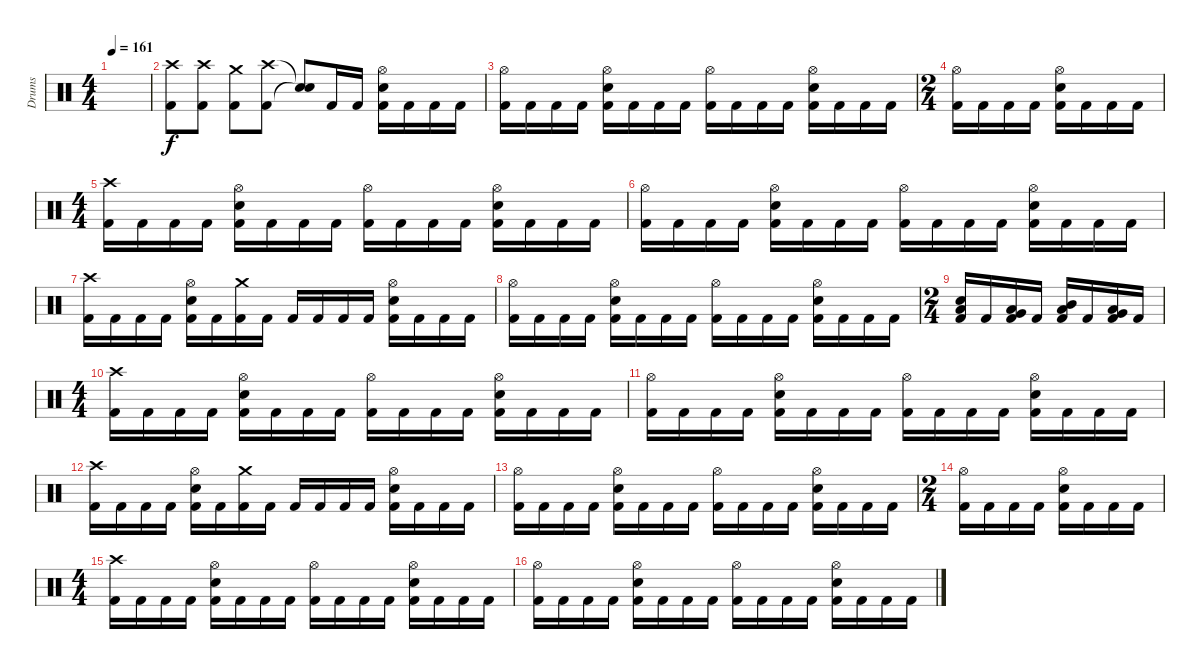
\track ("Drums" "Drums") {instrument percussion}
\staff {score}
\articulation defaults
\ts (4 4)
\tempo 161
\clef neutral
\ks c
|
("Crash high (hit)" "Kick (hit) 2").8 ("Crash high (hit)" "Kick (hit) 2").8 ("Crash medium (hit)" "Kick (hit) 2").8 ("Crash high (hit)" "Kick (hit) 2").8 ("Snare (hit)"{t} "Snare (hit)"{t}).8 "Kick (hit) 2".16 "Kick (hit) 2".16 ("Hi-Hat (open)" "Snare (hit) 2" "Kick (hit) 2").16 "Kick (hit) 2".16 "Kick (hit) 2".16 "Kick (hit) 2".16 |
("Hi-Hat (open)" "Kick (hit) 2").16 "Kick (hit) 2".16 "Kick (hit) 2".16 "Kick (hit) 2".16 ("Hi-Hat (open)" "Snare (hit) 2" "Kick (hit) 2").16 "Kick (hit) 2".16 "Kick (hit) 2".16 "Kick (hit) 2".16 ("Hi-Hat (open)" "Kick (hit) 2").16 "Kick (hit) 2".16 "Kick (hit) 2".16 "Kick (hit) 2".16 ("Hi-Hat (open)" "Snare (hit) 2" "Kick (hit) 2").16 "Kick (hit) 2".16 "Kick (hit) 2".16 "Kick (hit) 2".16 |
\ts (2 4)
("Hi-Hat (open)" "Kick (hit) 2").16 "Kick (hit) 2".16 "Kick (hit) 2".16 "Kick (hit) 2".16 ("Hi-Hat (open)" "Snare (hit) 2" "Kick (hit) 2").16 "Kick (hit) 2".16 "Kick (hit) 2".16 "Kick (hit) 2".16 |
\ts (4 4)
("Crash high (hit)" "Kick (hit) 2").16 "Kick (hit) 2".16 "Kick (hit) 2".16 "Kick (hit) 2".16 ("Hi-Hat (open)" "Snare (hit) 2" "Kick (hit) 2").16 "Kick (hit) 2".16 "Kick (hit) 2".16 "Kick (hit) 2".16 ("Hi-Hat (open)" "Kick (hit) 2").16 "Kick (hit) 2".16 "Kick (hit) 2".16 "Kick (hit) 2".16 ("Hi-Hat (open)" "Snare (hit) 2" "Kick (hit) 2").16 "Kick (hit) 2".16 "Kick (hit) 2".16 "Kick (hit) 2".16 |
("Hi-Hat (open)" "Kick (hit) 2").16 "Kick (hit) 2".16 "Kick (hit) 2".16 "Kick (hit) 2".16 ("Hi-Hat (open)" "Snare (hit) 2" "Kick (hit) 2").16 "Kick (hit) 2".16 "Kick (hit) 2".16 "Kick (hit) 2".16 ("Hi-Hat (open)" "Kick (hit) 2").16 "Kick (hit) 2".16 "Kick (hit) 2".16 "Kick (hit) 2".16 ("Hi-Hat (open)" "Snare (hit) 2" "Kick (hit) 2").16 "Kick (hit) 2".16 "Kick (hit) 2".16 "Kick (hit) 2".16 |
("Crash high (hit)" "Kick (hit) 2").16 "Kick (hit) 2".16 "Kick (hit) 2".16 "Kick (hit) 2".16 ("Hi-Hat (open)" "Snare (hit) 2" "Kick (hit) 2").16 "Kick (hit) 2".16 ("Crash medium (hit)" "Kick (hit) 2").16 "Kick (hit) 2".16 "Kick (hit) 2".16 "Kick (hit) 2".16 "Kick (hit) 2".16 "Kick (hit) 2".16 ("Hi-Hat (open)" "Snare (hit) 2" "Kick (hit) 2").16 "Kick (hit) 2".16 "Kick (hit) 2".16 "Kick (hit) 2".16 |
("Hi-Hat (open)" "Kick (hit) 2").16 "Kick (hit) 2".16 "Kick (hit) 2".16 "Kick (hit) 2".16 ("Hi-Hat (open)" "Snare (hit) 2" "Kick (hit) 2").16 "Kick (hit) 2".16 "Kick (hit) 2".16 "Kick (hit) 2".16 ("Hi-Hat (open)" "Kick (hit) 2").16 "Kick (hit) 2".16 "Kick (hit) 2".16 "Kick (hit) 2".16 ("Hi-Hat (open)" "Snare (hit) 2" "Kick (hit) 2").16 "Kick (hit) 2".16 "Kick (hit) 2".16 "Kick (hit) 2".16 |
\ts (2 4)
("Low Tom (hit)" "Snare (hit) 2" "Kick (hit) 2").16 "Kick (hit) 2".16 ("Very Low Tom (hit)" "Low Floor Tom (hit)" "Kick (hit) 2").16 "Kick (hit) 2".16 ("Mid Tom (hit)" "Low Tom (hit)" "Kick (hit) 2").16 "Kick (hit) 2".16 ("Low Tom (hit)" "Very Low Tom (hit)" "Kick (hit) 2").16 "Kick (hit) 2".16 |
\ts (4 4)
("Crash high (hit)" "Kick (hit) 2").16 "Kick (hit) 2".16 "Kick (hit) 2".16 "Kick (hit) 2".16 ("Hi-Hat (open)" "Snare (hit) 2" "Kick (hit) 2").16 "Kick (hit) 2".16 "Kick (hit) 2".16 "Kick (hit) 2".16 ("Hi-Hat (open)" "Kick (hit) 2").16 "Kick (hit) 2".16 "Kick (hit) 2".16 "Kick (hit) 2".16 ("Hi-Hat (open)" "Snare (hit) 2" "Kick (hit) 2").16 "Kick (hit) 2".16 "Kick (hit) 2".16 "Kick (hit) 2".16 |
("Hi-Hat (open)" "Kick (hit) 2").16 "Kick (hit) 2".16 "Kick (hit) 2".16 "Kick (hit) 2".16 ("Hi-Hat (open)" "Snare (hit) 2" "Kick (hit) 2").16 "Kick (hit) 2".16 "Kick (hit) 2".16 "Kick (hit) 2".16 ("Hi-Hat (open)" "Kick (hit) 2").16 "Kick (hit) 2".16 "Kick (hit) 2".16 "Kick (hit) 2".16 ("Hi-Hat (open)" "Snare (hit) 2" "Kick (hit) 2").16 "Kick (hit) 2".16 "Kick (hit) 2".16 "Kick (hit) 2".16 |
("Crash high (hit)" "Kick (hit) 2").16 "Kick (hit) 2".16 "Kick (hit) 2".16 "Kick (hit) 2".16 ("Hi-Hat (open)" "Snare (hit) 2" "Kick (hit) 2").16 "Kick (hit) 2".16 ("Crash medium (hit)" "Kick (hit) 2").16 "Kick (hit) 2".16 "Kick (hit) 2".16 "Kick (hit) 2".16 "Kick (hit) 2".16 "Kick (hit) 2".16 ("Hi-Hat (open)" "Snare (hit) 2" "Kick (hit) 2").16 "Kick (hit) 2".16 "Kick (hit) 2".16 "Kick (hit) 2".16 |
("Hi-Hat (open)" "Kick (hit) 2").16 "Kick (hit) 2".16 "Kick (hit) 2".16 "Kick (hit) 2".16 ("Hi-Hat (open)" "Snare (hit) 2" "Kick (hit) 2").16 "Kick (hit) 2".16 "Kick (hit) 2".16 "Kick (hit) 2".16 ("Hi-Hat (open)" "Kick (hit) 2").16 "Kick (hit) 2".16 "Kick (hit) 2".16 "Kick (hit) 2".16 ("Hi-Hat (open)" "Snare (hit) 2" "Kick (hit) 2").16 "Kick (hit) 2".16 "Kick (hit) 2".16 "Kick (hit) 2".16 |
\ts (2 4)
("Hi-Hat (open)" "Kick (hit) 2").16 "Kick (hit) 2".16 "Kick (hit) 2".16 "Kick (hit) 2".16 ("Hi-Hat (open)" "Snare (hit) 2" "Kick (hit) 2").16 "Kick (hit) 2".16 "Kick (hit) 2".16 "Kick (hit) 2".16 |
\ts (4 4)
("Crash high (hit)" "Kick (hit) 2").16 "Kick (hit) 2".16 "Kick (hit) 2".16 "Kick (hit) 2".16 ("Hi-Hat (open)" "Snare (hit) 2" "Kick (hit) 2").16 "Kick (hit) 2".16 "Kick (hit) 2".16 "Kick (hit) 2".16 ("Hi-Hat (open)" "Kick (hit) 2").16 "Kick (hit) 2".16 "Kick (hit) 2".16 "Kick (hit) 2".16 ("Hi-Hat (open)" "Snare (hit) 2" "Kick (hit) 2").16 "Kick (hit) 2".16 "Kick (hit) 2".16 "Kick (hit) 2".16 |
("Hi-Hat (open)" "Kick (hit) 2").16 "Kick (hit) 2".16 "Kick (hit) 2".16 "Kick (hit) 2".16 ("Hi-Hat (open)" "Snare (hit) 2" "Kick (hit) 2").16 "Kick (hit) 2".16 "Kick (hit) 2".16 "Kick (hit) 2".16 ("Hi-Hat (open)" "Kick (hit) 2").16 "Kick (hit) 2".16 "Kick (hit) 2".16 "Kick (hit) 2".16 ("Hi-Hat (open)" "Snare (hit) 2" "Kick (hit) 2").16 "Kick (hit) 2".16 "Kick (hit) 2".16 "Kick (hit) 2".16
